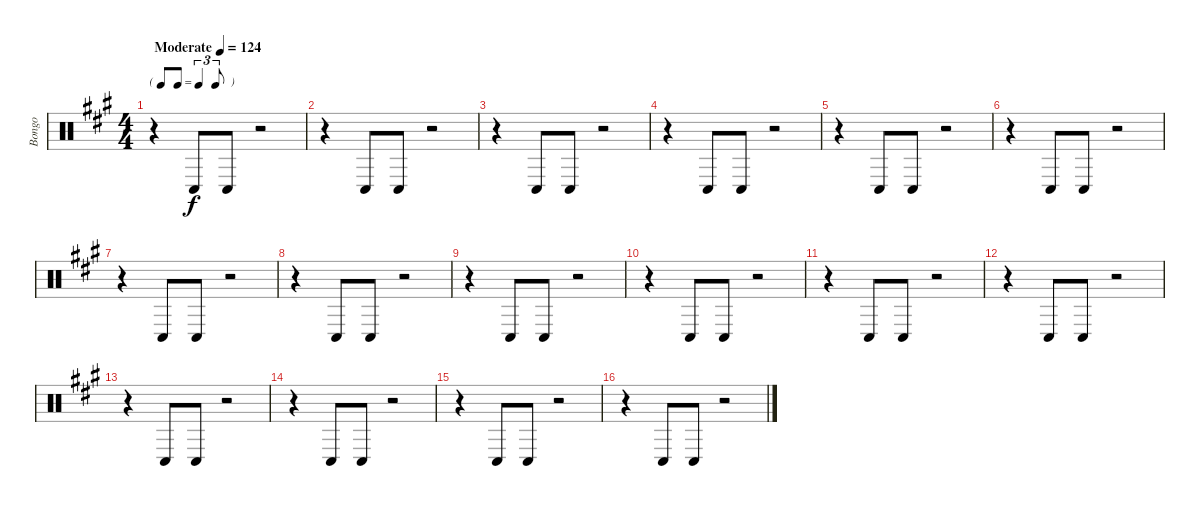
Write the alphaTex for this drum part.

\track ("Bongo" "Bongo") {instrument percussion}
\staff {score}
\articulation defaults
\ts (4 4)
\tf triplet8th
\tempo (124 "Moderate")
\clef neutral
\ks a
r.4{dy f} "Conga low (hit)".8 "Conga low (hit)".8 r.2 |
r.4 "Conga low (hit)".8 "Conga low (hit)".8 r.2 |
r.4 "Conga low (hit)".8 "Conga low (hit)".8 r.2 |
r.4 "Conga low (hit)".8 "Conga low (hit)".8 r.2 |
r.4 "Conga low (hit)".8 "Conga low (hit)".8 r.2 |
r.4 "Conga low (hit)".8 "Conga low (hit)".8 r.2 |
r.4 "Conga low (hit)".8 "Conga low (hit)".8 r.2 |
r.4 "Conga low (hit)".8 "Conga low (hit)".8 r.2 |
r.4 "Conga low (hit)".8 "Conga low (hit)".8 r.2 |
r.4 "Conga low (hit)".8 "Conga low (hit)".8 r.2 |
r.4 "Conga low (hit)".8 "Conga low (hit)".8 r.2 |
r.4 "Conga low (hit)".8 "Conga low (hit)".8 r.2 |
r.4 "Conga low (hit)".8 "Conga low (hit)".8 r.2 |
r.4 "Conga low (hit)".8 "Conga low (hit)".8 r.2 |
r.4 "Conga low (hit)".8 "Conga low (hit)".8 r.2 |
r.4 "Conga low (hit)".8 "Conga low (hit)".8 r.2
